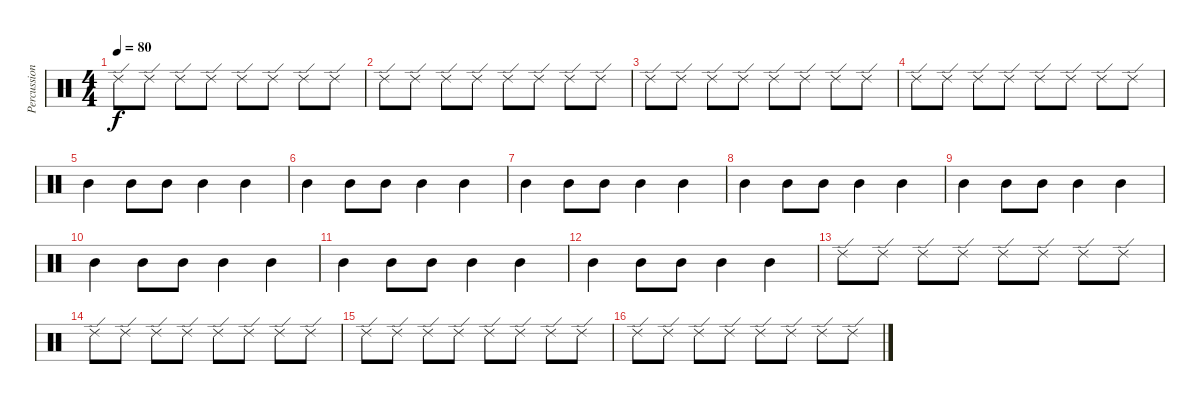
\track ("Percussion" "Percussion") {instrument percussion}
\staff {score}
\articulation defaults
\ts (4 4)
\tempo 80
\clef neutral
\ks c "Ride (edge) 2".8{dy f} "Ride (edge) 2".8 "Ride (edge) 2".8 "Ride (edge) 2".8 "Ride (edge) 2".8 "Ride (edge) 2".8 "Ride (edge) 2".8 "Ride (edge) 2".8
|
"Ride (edge) 2".8 "Ride (edge) 2".8 "Ride (edge) 2".8 "Ride (edge) 2".8 "Ride (edge) 2".8 "Ride (edge) 2".8 "Ride (edge) 2".8 "Ride (edge) 2".8 |
"Ride (edge) 2".8 "Ride (edge) 2".8 "Ride (edge) 2".8 "Ride (edge) 2".8 "Ride (edge) 2".8 "Ride (edge) 2".8 "Ride (edge) 2".8 "Ride (edge) 2".8 |
"Ride (edge) 2".8 "Ride (edge) 2".8 "Ride (edge) 2".8 "Ride (edge) 2".8 "Ride (edge) 2".8 "Ride (edge) 2".8 "Ride (edge) 2".8 "Ride (edge) 2".8 |
"Mid Tom (hit)".4 "Mid Tom (hit)".8 "Mid Tom (hit)".8 "Mid Tom (hit)".4 "Mid Tom (hit)".4 |
"Mid Tom (hit)".4 "Mid Tom (hit)".8 "Mid Tom (hit)".8 "Mid Tom (hit)".4 "Mid Tom (hit)".4 |
"Mid Tom (hit)".4 "Mid Tom (hit)".8 "Mid Tom (hit)".8 "Mid Tom (hit)".4 "Mid Tom (hit)".4 |
"Mid Tom (hit)".4 "Mid Tom (hit)".8 "Mid Tom (hit)".8 "Mid Tom (hit)".4 "Mid Tom (hit)".4 |
"Mid Tom (hit)".4 "Mid Tom (hit)".8 "Mid Tom (hit)".8 "Mid Tom (hit)".4 "Mid Tom (hit)".4 |
"Mid Tom (hit)".4 "Mid Tom (hit)".8 "Mid Tom (hit)".8 "Mid Tom (hit)".4 "Mid Tom (hit)".4 |
"Mid Tom (hit)".4 "Mid Tom (hit)".8 "Mid Tom (hit)".8 "Mid Tom (hit)".4 "Mid Tom (hit)".4 |
"Mid Tom (hit)".4 "Mid Tom (hit)".8 "Mid Tom (hit)".8 "Mid Tom (hit)".4 "Mid Tom (hit)".4 |
"Ride (edge) 2".8 "Ride (edge) 2".8 "Ride (edge) 2".8 "Ride (edge) 2".8 "Ride (edge) 2".8 "Ride (edge) 2".8 "Ride (edge) 2".8 "Ride (edge) 2".8 |
"Ride (edge) 2".8 "Ride (edge) 2".8 "Ride (edge) 2".8 "Ride (edge) 2".8 "Ride (edge) 2".8 "Ride (edge) 2".8 "Ride (edge) 2".8 "Ride (edge) 2".8 |
"Ride (edge) 2".8 "Ride (edge) 2".8 "Ride (edge) 2".8 "Ride (edge) 2".8 "Ride (edge) 2".8 "Ride (edge) 2".8 "Ride (edge) 2".8 "Ride (edge) 2".8 |
"Ride (edge) 2".8 "Ride (edge) 2".8 "Ride (edge) 2".8 "Ride (edge) 2".8 "Ride (edge) 2".8 "Ride (edge) 2".8 "Ride (edge) 2".8 "Ride (edge) 2".8
